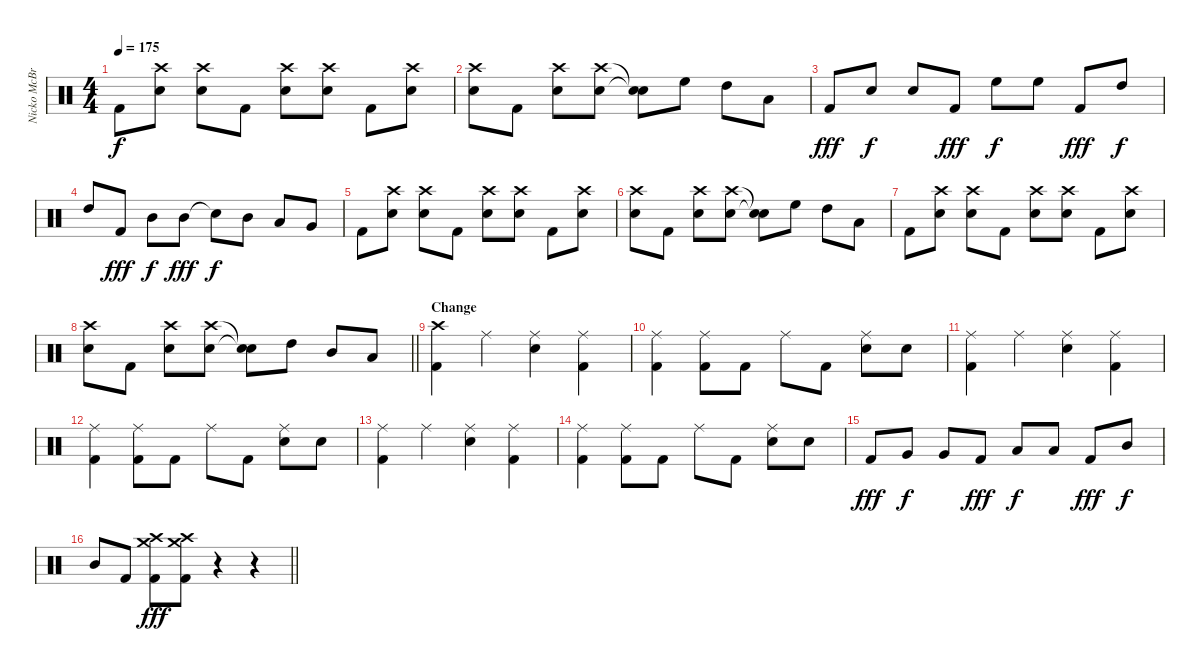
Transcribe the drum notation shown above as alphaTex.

\track ("Nicko McBrian" "Nicko McBr") {instrument percussion}
\staff {score}
\articulation defaults
\ts (4 4)
\tempo 175
\clef neutral
\ks c "Kick (hit) 2".8{dy f}
("Crash high (hit)" "Electric Snare (hit)").8 ("Crash high (hit)" "Electric Snare (hit)").8 "Kick (hit) 2".8 ("Crash high (hit)" "Electric Snare (hit)").8 ("Crash high (hit)" "Electric Snare (hit)").8 "Kick (hit) 2".8 ("Crash high (hit)" "Electric Snare (hit)").8 |
("Crash high (hit)" "Electric Snare (hit)").8 "Kick (hit) 2".8 ("Crash high (hit)" "Electric Snare (hit)").8 ("Crash high (hit)" "Electric Snare (hit)").8 ("Snare (hit)"{t} "Snare (hit)"{t}).8 "High Floor Tom (hit)".8 "High Tom (hit)".8 "Low Tom (hit)".8 |
"Kick (hit) 2".8{dy fff} "Electric Snare (hit)".8{dy f} "Electric Snare (hit)".8 "Kick (hit) 2".8{dy fff} "High Floor Tom (hit)".8{dy f} "High Floor Tom (hit)".8 "Kick (hit) 2".8{dy fff} "High Tom (hit)".8{dy f} |
"High Tom (hit)".8 "Kick (hit) 2".8{dy fff} "Mid Tom (hit)".8{dy f} "Mid Tom (hit)".8{dy fff} "Snare (hit)"{t}.8{dy f} "Mid Tom (hit)".8 "Low Tom (hit)".8 "Very Low Tom (hit)".8 |
"Kick (hit) 2".8 ("Crash high (hit)" "Electric Snare (hit)").8 ("Crash high (hit)" "Electric Snare (hit)").8 "Kick (hit) 2".8 ("Crash high (hit)" "Electric Snare (hit)").8 ("Crash high (hit)" "Electric Snare (hit)").8 "Kick (hit) 2".8 ("Crash high (hit)" "Electric Snare (hit)").8 |
("Crash high (hit)" "Electric Snare (hit)").8 "Kick (hit) 2".8 ("Crash high (hit)" "Electric Snare (hit)").8 ("Crash high (hit)" "Electric Snare (hit)").8 ("Snare (hit)"{t} "Snare (hit)"{t}).8 "High Floor Tom (hit)".8 "High Tom (hit)".8 "Low Tom (hit)".8 |
"Kick (hit) 2".8 ("Crash high (hit)" "Electric Snare (hit)").8 ("Crash high (hit)" "Electric Snare (hit)").8 "Kick (hit) 2".8 ("Crash high (hit)" "Electric Snare (hit)").8 ("Crash high (hit)" "Electric Snare (hit)").8 "Kick (hit) 2".8 ("Crash high (hit)" "Electric Snare (hit)").8 |
\barLineRight lightlight
("Crash high (hit)" "Electric Snare (hit)").8 "Kick (hit) 2".8 ("Crash high (hit)" "Electric Snare (hit)").8 ("Crash high (hit)" "Electric Snare (hit)").8 ("Snare (hit)"{t} "Snare (hit)"{t}).8 "High Tom (hit)".8 "Mid Tom (hit)".8 "Low Tom (hit)".8 |
\section ("" "Change")
("Crash high (hit)" "Kick (hit) 2").4 "Ride (middle)".4 ("Ride (middle)" "Electric Snare (hit)").4 ("Ride (middle)" "Kick (hit) 2").4 |
("Ride (middle)" "Kick (hit) 2").4 ("Ride (middle)" "Kick (hit) 2").8 "Kick (hit) 2".8 "Ride (middle)".8 "Kick (hit) 2".8 ("Ride (middle)" "Electric Snare (hit)").8 "Electric Snare (hit)".8 |
("Ride (middle)" "Kick (hit) 2").4 "Ride (middle)".4 ("Ride (middle)" "Electric Snare (hit)").4 ("Ride (middle)" "Kick (hit) 2").4 |
("Ride (middle)" "Kick (hit) 2").4 ("Ride (middle)" "Kick (hit) 2").8 "Kick (hit) 2".8 "Ride (middle)".8 "Kick (hit) 2".8 ("Ride (middle)" "Electric Snare (hit)").8 "Electric Snare (hit)".8 |
("Ride (middle)" "Kick (hit) 2").4 "Ride (middle)".4 ("Ride (middle)" "Electric Snare (hit)").4 ("Ride (middle)" "Kick (hit) 2").4 |
("Ride (middle)" "Kick (hit) 2").4 ("Ride (middle)" "Kick (hit) 2").8 "Kick (hit) 2".8 "Ride (middle)".8 "Kick (hit) 2".8 ("Ride (middle)" "Electric Snare (hit)").8 "Electric Snare (hit)".8 |
"Kick (hit) 2".8{dy fff} "Very Low Tom (hit)".8{dy f} "Very Low Tom (hit)".8 "Kick (hit) 2".8{dy fff} "Low Tom (hit)".8{dy f} "Low Tom (hit)".8 "Kick (hit) 2".8{dy fff} "Mid Tom (hit)".8{dy f} |
\barLineRight lightlight "Mid Tom (hit)".8 "Kick (hit) 2".8
("Crash high (hit)" "Crash medium (hit)" "Kick (hit) 2").8{dy fff} ("Crash high (hit)" "Crash medium (hit)" "Kick (hit) 2").8 r.4 r.4
